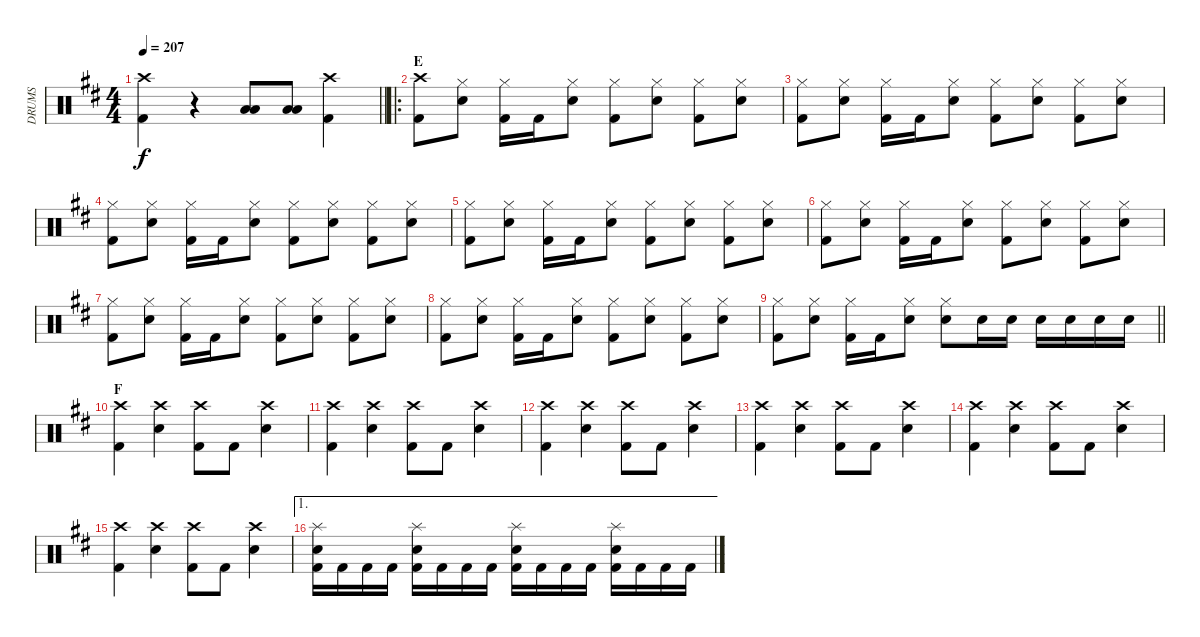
\track ("DRUMS" "DRUMS") {instrument percussion}
\staff {score}
\articulation defaults
\ts (4 4)
\tempo 207
\clef neutral
\barLineRight lightlight
\ks d
("Crash high (hit)" "Kick (hit) 2").4{dy f} r.4 ("Low Tom (hit)" "Low Floor Tom (hit)").8 ("Low Tom (hit)" "Low Floor Tom (hit)").8 ("Crash high (hit)" "Kick (hit) 2").4 |
\ro
\section ("" "E")
("Crash high (hit)" "Kick (hit) 2").8 ("Hi-Hat (closed)" "Snare (hit) 2").8 ("Hi-Hat (closed)" "Kick (hit) 2").16 "Kick (hit) 2".16 ("Hi-Hat (closed)" "Snare (hit) 2").8 ("Hi-Hat (closed)" "Kick (hit) 2").8 ("Hi-Hat (closed)" "Snare (hit) 2").8 ("Hi-Hat (closed)" "Kick (hit) 2").8 ("Hi-Hat (closed)" "Snare (hit) 2").8 |
("Hi-Hat (closed)" "Kick (hit) 2").8 ("Hi-Hat (closed)" "Snare (hit) 2").8 ("Hi-Hat (closed)" "Kick (hit) 2").16 "Kick (hit) 2".16 ("Hi-Hat (closed)" "Snare (hit) 2").8 ("Hi-Hat (closed)" "Kick (hit) 2").8 ("Hi-Hat (closed)" "Snare (hit) 2").8 ("Hi-Hat (closed)" "Kick (hit) 2").8 ("Hi-Hat (closed)" "Snare (hit) 2").8 |
("Hi-Hat (closed)" "Kick (hit) 2").8 ("Hi-Hat (closed)" "Snare (hit) 2").8 ("Hi-Hat (closed)" "Kick (hit) 2").16 "Kick (hit) 2".16 ("Hi-Hat (closed)" "Snare (hit) 2").8 ("Hi-Hat (closed)" "Kick (hit) 2").8 ("Hi-Hat (closed)" "Snare (hit) 2").8 ("Hi-Hat (closed)" "Kick (hit) 2").8 ("Hi-Hat (closed)" "Snare (hit) 2").8 |
("Hi-Hat (closed)" "Kick (hit) 2").8 ("Hi-Hat (closed)" "Snare (hit) 2").8 ("Hi-Hat (closed)" "Kick (hit) 2").16 "Kick (hit) 2".16 ("Hi-Hat (closed)" "Snare (hit) 2").8 ("Hi-Hat (closed)" "Kick (hit) 2").8 ("Hi-Hat (closed)" "Snare (hit) 2").8 ("Hi-Hat (closed)" "Kick (hit) 2").8 ("Hi-Hat (closed)" "Snare (hit) 2").8 |
("Hi-Hat (closed)" "Kick (hit) 2").8 ("Hi-Hat (closed)" "Snare (hit) 2").8 ("Hi-Hat (closed)" "Kick (hit) 2").16 "Kick (hit) 2".16 ("Hi-Hat (closed)" "Snare (hit) 2").8 ("Hi-Hat (closed)" "Kick (hit) 2").8 ("Hi-Hat (closed)" "Snare (hit) 2").8 ("Hi-Hat (closed)" "Kick (hit) 2").8 ("Hi-Hat (closed)" "Snare (hit) 2").8 |
("Hi-Hat (closed)" "Kick (hit) 2").8 ("Hi-Hat (closed)" "Snare (hit) 2").8 ("Hi-Hat (closed)" "Kick (hit) 2").16 "Kick (hit) 2".16 ("Hi-Hat (closed)" "Snare (hit) 2").8 ("Hi-Hat (closed)" "Kick (hit) 2").8 ("Hi-Hat (closed)" "Snare (hit) 2").8 ("Hi-Hat (closed)" "Kick (hit) 2").8 ("Hi-Hat (closed)" "Snare (hit) 2").8 |
("Hi-Hat (closed)" "Kick (hit) 2").8 ("Hi-Hat (closed)" "Snare (hit) 2").8 ("Hi-Hat (closed)" "Kick (hit) 2").16 "Kick (hit) 2".16 ("Hi-Hat (closed)" "Snare (hit) 2").8 ("Hi-Hat (closed)" "Kick (hit) 2").8 ("Hi-Hat (closed)" "Snare (hit) 2").8 ("Hi-Hat (closed)" "Kick (hit) 2").8 ("Hi-Hat (closed)" "Snare (hit) 2").8 |
\barLineRight lightlight
("Hi-Hat (closed)" "Kick (hit) 2").8 ("Hi-Hat (closed)" "Snare (hit) 2").8 ("Hi-Hat (closed)" "Kick (hit) 2").16 "Kick (hit) 2".16 ("Hi-Hat (closed)" "Snare (hit) 2").8 ("Hi-Hat (closed)" "Snare (hit) 2").8 "Snare (hit) 2".16 "Snare (hit) 2".16 "Snare (hit) 2".16 "Snare (hit) 2".16 "Snare (hit) 2".16 "Snare (hit) 2".16 |
\section ("" "F")
("Crash high (hit)" "Kick (hit) 2").4 ("Crash high (hit)" "Snare (hit) 2").4 ("Crash high (hit)" "Kick (hit) 2").8 "Kick (hit) 2".8 ("Crash high (hit)" "Snare (hit) 2").4 |
("Crash high (hit)" "Kick (hit) 2").4 ("Crash high (hit)" "Snare (hit) 2").4 ("Crash high (hit)" "Kick (hit) 2").8 "Kick (hit) 2".8 ("Crash high (hit)" "Snare (hit) 2").4 |
("Crash high (hit)" "Kick (hit) 2").4 ("Crash high (hit)" "Snare (hit) 2").4 ("Crash high (hit)" "Kick (hit) 2").8 "Kick (hit) 2".8 ("Crash high (hit)" "Snare (hit) 2").4 |
("Crash high (hit)" "Kick (hit) 2").4 ("Crash high (hit)" "Snare (hit) 2").4 ("Crash high (hit)" "Kick (hit) 2").8 "Kick (hit) 2".8 ("Crash high (hit)" "Snare (hit) 2").4 |
("Crash high (hit)" "Kick (hit) 2").4 ("Crash high (hit)" "Snare (hit) 2").4 ("Crash high (hit)" "Kick (hit) 2").8 "Kick (hit) 2".8 ("Crash high (hit)" "Snare (hit) 2").4 |
("Crash high (hit)" "Kick (hit) 2").4 ("Crash high (hit)" "Snare (hit) 2").4 ("Crash high (hit)" "Kick (hit) 2").8 "Kick (hit) 2".8 ("Crash high (hit)" "Snare (hit) 2").4 |
\ae 1
("Splash (hit)" "Snare (hit) 2" "Kick (hit) 2").16 "Kick (hit) 2".16 "Kick (hit) 2".16 "Kick (hit) 2".16 ("Splash (hit)" "Snare (hit) 2" "Kick (hit) 2").16 "Kick (hit) 2".16 "Kick (hit) 2".16 "Kick (hit) 2".16 ("Splash (hit)" "Snare (hit) 2" "Kick (hit) 2").16 "Kick (hit) 2".16 "Kick (hit) 2".16 "Kick (hit) 2".16 ("Splash (hit)" "Snare (hit) 2" "Kick (hit) 2").16 "Kick (hit) 2".16 "Kick (hit) 2".16 "Kick (hit) 2".16
